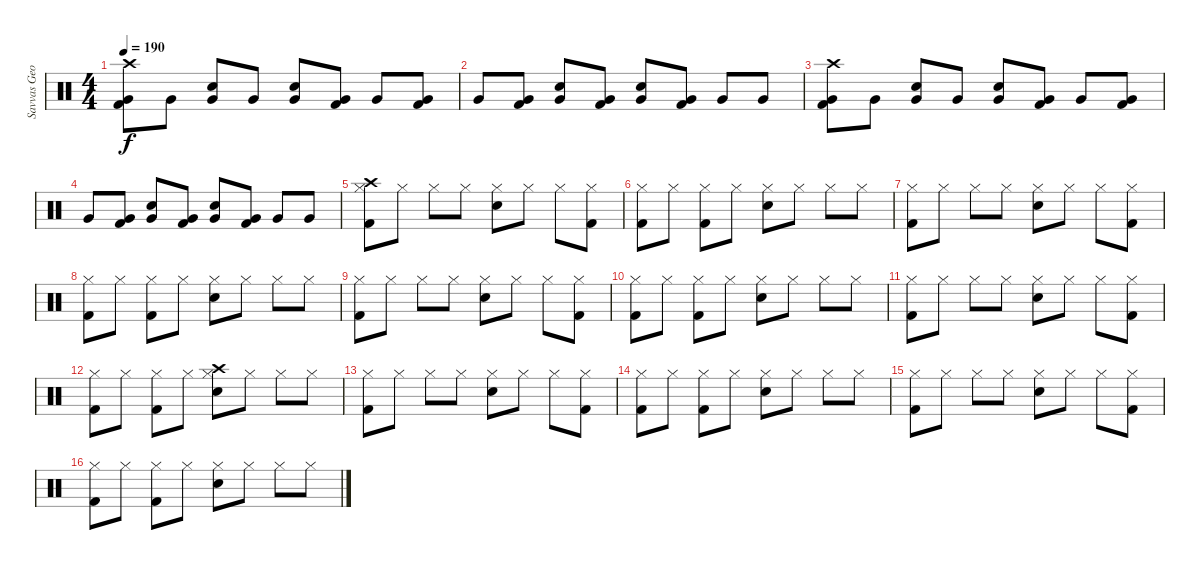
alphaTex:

\track ("Savvas Georgiadis" "Savvas Geo") {instrument percussion}
\staff {score}
\articulation defaults
\ts (4 4)
\tempo 190
\clef neutral
\ks c
("Crash high (hit)" "Kick (hit) 2" "Very Low Tom (hit)").8{dy f} "Very Low Tom (hit)".8 ("Electric Snare (hit)" "Very Low Tom (hit)").8 "Very Low Tom (hit)".8 ("Electric Snare (hit)" "Very Low Tom (hit)").8 ("Kick (hit) 2" "Very Low Tom (hit)").8 "Very Low Tom (hit)".8 ("Kick (hit) 2" "Very Low Tom (hit)").8 |
"Very Low Tom (hit)".8 ("Kick (hit) 2" "Very Low Tom (hit)").8 ("Electric Snare (hit)" "Very Low Tom (hit)").8 ("Kick (hit) 2" "Very Low Tom (hit)").8 ("Electric Snare (hit)" "Very Low Tom (hit)").8 ("Kick (hit) 2" "Very Low Tom (hit)").8 "Very Low Tom (hit)".8 "Very Low Tom (hit)".8 |
("Crash high (hit)" "Kick (hit) 2" "Very Low Tom (hit)").8 "Very Low Tom (hit)".8 ("Electric Snare (hit)" "Very Low Tom (hit)").8 "Very Low Tom (hit)".8 ("Electric Snare (hit)" "Very Low Tom (hit)").8 ("Kick (hit) 2" "Very Low Tom (hit)").8 "Very Low Tom (hit)".8 ("Kick (hit) 2" "Very Low Tom (hit)").8 |
"Very Low Tom (hit)".8 ("Kick (hit) 2" "Very Low Tom (hit)").8 ("Electric Snare (hit)" "Very Low Tom (hit)").8 ("Kick (hit) 2" "Very Low Tom (hit)").8 ("Electric Snare (hit)" "Very Low Tom (hit)").8 ("Kick (hit) 2" "Very Low Tom (hit)").8 "Very Low Tom (hit)".8 "Very Low Tom (hit)".8 |
("Crash high (hit)" "Hi-Hat (closed)" "Kick (hit) 2").8 "Hi-Hat (closed)".8 "Hi-Hat (closed)".8 "Hi-Hat (closed)".8 ("Hi-Hat (closed)" "Electric Snare (hit)").8 "Hi-Hat (closed)".8 "Hi-Hat (closed)".8 ("Hi-Hat (closed)" "Kick (hit) 2").8 |
("Hi-Hat (closed)" "Kick (hit) 2").8 "Hi-Hat (closed)".8 ("Hi-Hat (closed)" "Kick (hit) 2").8 "Hi-Hat (closed)".8 ("Hi-Hat (closed)" "Electric Snare (hit)").8 "Hi-Hat (closed)".8 "Hi-Hat (closed)".8 "Hi-Hat (closed)".8 |
("Hi-Hat (closed)" "Kick (hit) 2").8 "Hi-Hat (closed)".8 "Hi-Hat (closed)".8 "Hi-Hat (closed)".8 ("Hi-Hat (closed)" "Electric Snare (hit)").8 "Hi-Hat (closed)".8 "Hi-Hat (closed)".8 ("Hi-Hat (closed)" "Kick (hit) 2").8 |
("Hi-Hat (closed)" "Kick (hit) 2").8 "Hi-Hat (closed)".8 ("Hi-Hat (closed)" "Kick (hit) 2").8 "Hi-Hat (closed)".8 ("Hi-Hat (closed)" "Electric Snare (hit)").8 "Hi-Hat (closed)".8 "Hi-Hat (closed)".8 "Hi-Hat (closed)".8 |
("Hi-Hat (closed)" "Kick (hit) 2").8 "Hi-Hat (closed)".8 "Hi-Hat (closed)".8 "Hi-Hat (closed)".8 ("Hi-Hat (closed)" "Electric Snare (hit)").8 "Hi-Hat (closed)".8 "Hi-Hat (closed)".8 ("Hi-Hat (closed)" "Kick (hit) 2").8 |
("Hi-Hat (closed)" "Kick (hit) 2").8 "Hi-Hat (closed)".8 ("Hi-Hat (closed)" "Kick (hit) 2").8 "Hi-Hat (closed)".8 ("Hi-Hat (closed)" "Electric Snare (hit)").8 "Hi-Hat (closed)".8 "Hi-Hat (closed)".8 "Hi-Hat (closed)".8 |
("Hi-Hat (closed)" "Kick (hit) 2").8 "Hi-Hat (closed)".8 "Hi-Hat (closed)".8 "Hi-Hat (closed)".8 ("Hi-Hat (closed)" "Electric Snare (hit)").8 "Hi-Hat (closed)".8 "Hi-Hat (closed)".8 ("Hi-Hat (closed)" "Kick (hit) 2").8 |
("Hi-Hat (closed)" "Kick (hit) 2").8 "Hi-Hat (closed)".8 ("Hi-Hat (closed)" "Kick (hit) 2").8 "Hi-Hat (closed)".8 ("Crash high (hit)" "Hi-Hat (closed)" "Electric Snare (hit)").8 "Hi-Hat (closed)".8 "Hi-Hat (closed)".8 "Hi-Hat (closed)".8 |
("Hi-Hat (closed)" "Kick (hit) 2").8 "Hi-Hat (closed)".8 "Hi-Hat (closed)".8 "Hi-Hat (closed)".8 ("Hi-Hat (closed)" "Electric Snare (hit)").8 "Hi-Hat (closed)".8 "Hi-Hat (closed)".8 ("Hi-Hat (closed)" "Kick (hit) 2").8 |
("Hi-Hat (closed)" "Kick (hit) 2").8 "Hi-Hat (closed)".8 ("Hi-Hat (closed)" "Kick (hit) 2").8 "Hi-Hat (closed)".8 ("Hi-Hat (closed)" "Electric Snare (hit)").8 "Hi-Hat (closed)".8 "Hi-Hat (closed)".8 "Hi-Hat (closed)".8 |
("Hi-Hat (closed)" "Kick (hit) 2").8 "Hi-Hat (closed)".8 "Hi-Hat (closed)".8 "Hi-Hat (closed)".8 ("Hi-Hat (closed)" "Electric Snare (hit)").8 "Hi-Hat (closed)".8 "Hi-Hat (closed)".8 ("Hi-Hat (closed)" "Kick (hit) 2").8 |
("Hi-Hat (closed)" "Kick (hit) 2").8 "Hi-Hat (closed)".8 ("Hi-Hat (closed)" "Kick (hit) 2").8 "Hi-Hat (closed)".8 ("Hi-Hat (closed)" "Electric Snare (hit)").8 "Hi-Hat (closed)".8 "Hi-Hat (closed)".8 "Hi-Hat (closed)".8
